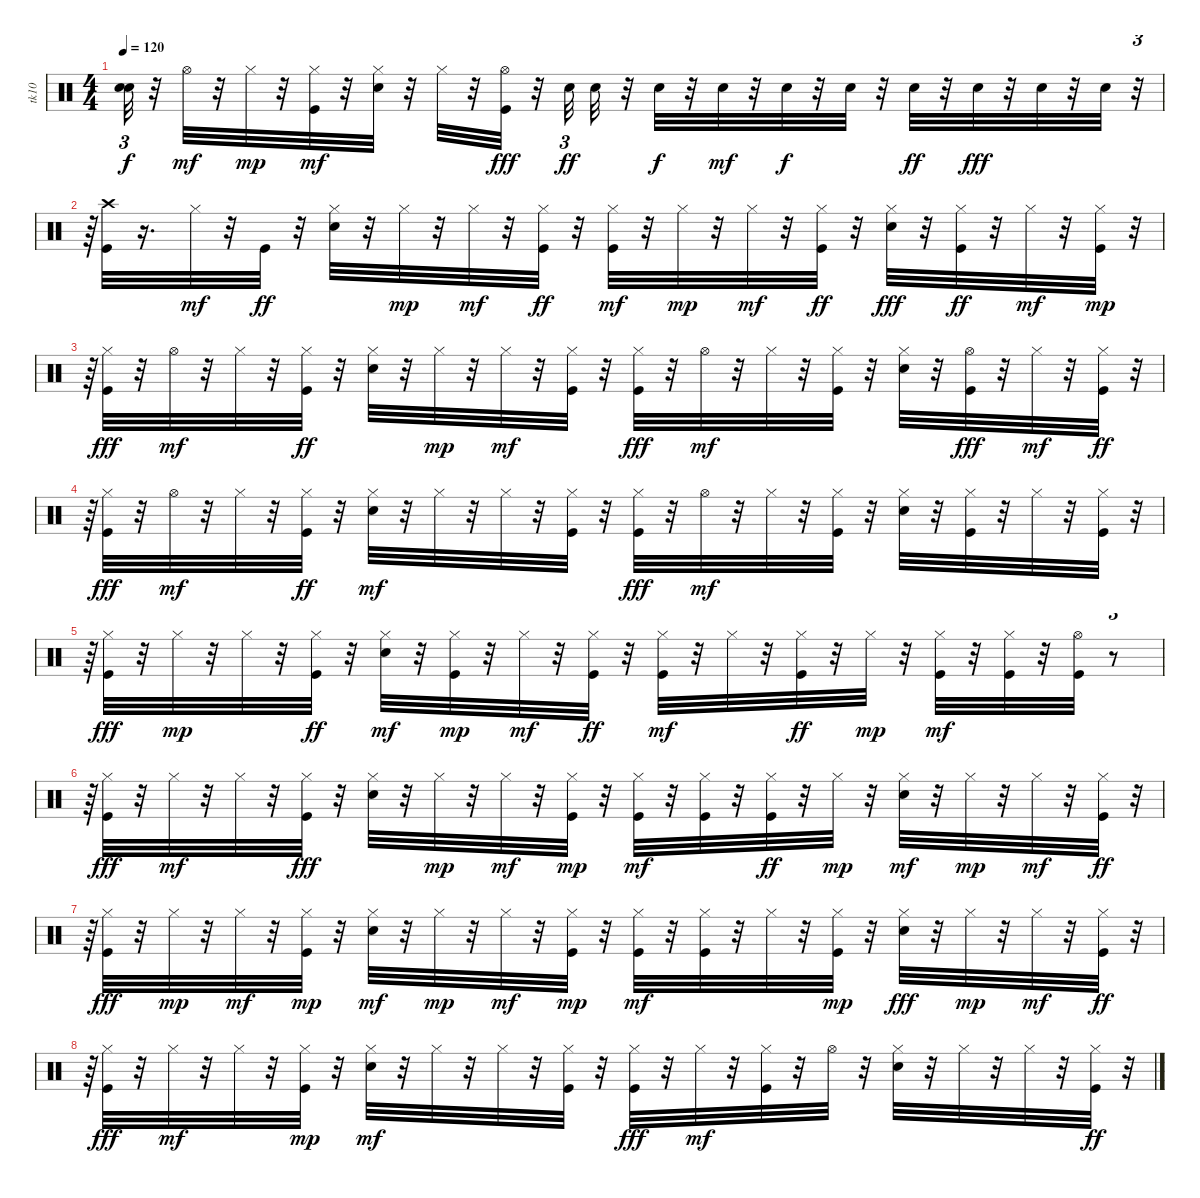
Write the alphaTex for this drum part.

\track ("tk10" "tk10") {instrument percussion}
\staff {score}
\articulation defaults
\ts (4 4)
\tempo 120
\clef neutral
\ks c
("Snare (hit)"{t} "Snare (hit)"{t}).32{tu (3 2) dy f} r.32 "Hi-Hat (open)".32{dy mf} r.32 "Hi-Hat (closed)".32{dy mp} r.32 ("Kick (hit)" "Hi-Hat (closed)").32{dy mf} r.32 ("Snare (hit) 2" "Hi-Hat (closed)").32 r.32 "Hi-Hat (closed)".32 r.32 ("Hi-Hat (open)" "Kick (hit)").32{dy fff} r.32 "Snare (hit) 2".32{tu (3 2) dy ff} "Snare (hit) 2".32 r.32 "Snare (hit) 2".32{dy f} r.32 "Snare (hit) 2".32{dy mf} r.32 "Snare (hit) 2".32{dy f} r.32 "Snare (hit) 2".32 r.32 "Snare (hit) 2".32{dy ff} r.32 "Snare (hit) 2".32{dy fff} r.32 "Snare (hit) 2".32 r.32 "Snare (hit) 2".32 r.32{tu (3 2)} |
r.64{tu (3 2)} ("Crash high (hit)" "Kick (hit)").32 r.16{d} "Hi-Hat (closed)".32{dy mf} r.32 "Kick (hit)".32{dy ff} r.32 ("Hi-Hat (closed)" "Snare (hit) 2").32 r.32 "Hi-Hat (closed)".32{dy mp} r.32 "Hi-Hat (closed)".32{dy mf} r.32 ("Hi-Hat (closed)" "Kick (hit)").32{dy ff} r.32 ("Kick (hit)" "Hi-Hat (closed)").32{dy mf} r.32 "Hi-Hat (closed)".32{dy mp} r.32 "Hi-Hat (closed)".32{dy mf} r.32 ("Hi-Hat (closed)" "Kick (hit)").32{dy ff} r.32 ("Hi-Hat (closed)" "Snare (hit) 2").32{dy fff} r.32 ("Hi-Hat (closed)" "Kick (hit)").32{dy ff} r.32 "Hi-Hat (closed)".32{dy mf} r.32 ("Hi-Hat (closed)" "Kick (hit)").32{dy mp} r.32{tu (3 2)} |
r.64{tu (3 2)} ("Hi-Hat (closed)" "Kick (hit)").32{dy fff} r.32 "Hi-Hat (open)".32{dy mf} r.32 "Hi-Hat (closed)".32 r.32 ("Hi-Hat (closed)" "Kick (hit)").32{dy ff} r.32 ("Hi-Hat (closed)" "Snare (hit) 2").32 r.32 "Hi-Hat (closed)".32{dy mp} r.32 "Hi-Hat (closed)".32{dy mf} r.32 ("Kick (hit)" "Hi-Hat (closed)").32 r.32 ("Hi-Hat (closed)" "Kick (hit)").32{dy fff} r.32 "Hi-Hat (open)".32{dy mf} r.32 "Hi-Hat (closed)".32 r.32 ("Kick (hit)" "Hi-Hat (closed)").32 r.32 ("Snare (hit) 2" "Hi-Hat (closed)").32 r.32 ("Hi-Hat (open)" "Kick (hit)").32{dy fff} r.32 "Hi-Hat (closed)".32{dy mf} r.32 ("Hi-Hat (closed)" "Kick (hit)").32{dy ff} r.32{tu (3 2)} |
r.64{tu (3 2)} ("Hi-Hat (closed)" "Kick (hit)").32{dy fff} r.32 "Hi-Hat (open)".32{dy mf} r.32 "Hi-Hat (closed)".32 r.32 ("Hi-Hat (closed)" "Kick (hit)").32{dy ff} r.32 ("Snare (hit) 2" "Hi-Hat (closed)").32{dy mf} r.32 "Hi-Hat (closed)".32 r.32 "Hi-Hat (closed)".32 r.32 ("Kick (hit)" "Hi-Hat (closed)").32 r.32 ("Hi-Hat (closed)" "Kick (hit)").32{dy fff} r.32 "Hi-Hat (open)".32{dy mf} r.32 "Hi-Hat (closed)".32 r.32 ("Kick (hit)" "Hi-Hat (closed)").32 r.32 ("Snare (hit) 2" "Hi-Hat (closed)").32 r.32 ("Kick (hit)" "Hi-Hat (closed)").32 r.32 "Hi-Hat (closed)".32 r.32 ("Hi-Hat (closed)" "Kick (hit)").32 r.32{tu (3 2)} |
r.64{tu (3 2)} ("Hi-Hat (closed)" "Kick (hit)").32{dy fff} r.32 "Hi-Hat (closed)".32{dy mp} r.32 "Hi-Hat (closed)".32 r.32 ("Hi-Hat (closed)" "Kick (hit)").32{dy ff} r.32 ("Snare (hit) 2" "Hi-Hat (closed)").32{dy mf} r.32 ("Kick (hit)" "Hi-Hat (closed)").32{dy mp} r.32 "Hi-Hat (closed)".32{dy mf} r.32 ("Hi-Hat (closed)" "Kick (hit)").32{dy ff} r.32 ("Kick (hit)" "Hi-Hat (closed)").32{dy mf} r.32 "Hi-Hat (closed)".32 r.32 ("Hi-Hat (closed)" "Kick (hit)").32{dy ff} r.32 "Hi-Hat (closed)".32{dy mp} r.32 ("Kick (hit)" "Hi-Hat (closed)").32{dy mf} r.32 ("Kick (hit)" "Hi-Hat (closed)").32 r.32 ("Kick (hit)" "Hi-Hat (open)").32 r.8{tu (3 2)} |
r.64{tu (3 2)} ("Hi-Hat (closed)" "Kick (hit)").32{dy fff} r.32 "Hi-Hat (closed)".32{dy mf} r.32 "Hi-Hat (closed)".32 r.32 ("Hi-Hat (closed)" "Kick (hit)").32{dy fff} r.32 ("Hi-Hat (closed)" "Snare (hit) 2").32 r.32 "Hi-Hat (closed)".32{dy mp} r.32 "Hi-Hat (closed)".32{dy mf} r.32 ("Hi-Hat (closed)" "Kick (hit)").32{dy mp} r.32 ("Kick (hit)" "Hi-Hat (closed)").32{dy mf} r.32 ("Hi-Hat (closed)" "Kick (hit)").32 r.32 ("Hi-Hat (closed)" "Kick (hit)").32{dy ff} r.32 "Hi-Hat (closed)".32{dy mp} r.32 ("Snare (hit) 2" "Hi-Hat (closed)").32{dy mf} r.32 "Hi-Hat (closed)".32{dy mp} r.32 "Hi-Hat (closed)".32{dy mf} r.32 ("Hi-Hat (closed)" "Kick (hit)").32{dy ff} r.32{tu (3 2)} |
r.64{tu (3 2)} ("Hi-Hat (closed)" "Kick (hit)").32{dy fff} r.32 "Hi-Hat (closed)".32{dy mp} r.32 "Hi-Hat (closed)".32{dy mf} r.32 ("Kick (hit)" "Hi-Hat (closed)").32{dy mp} r.32 ("Snare (hit) 2" "Hi-Hat (closed)").32{dy mf} r.32 "Hi-Hat (closed)".32{dy mp} r.32 "Hi-Hat (closed)".32{dy mf} r.32 ("Kick (hit)" "Hi-Hat (closed)").32{dy mp} r.32 ("Kick (hit)" "Hi-Hat (closed)").32{dy mf} r.32 ("Kick (hit)" "Hi-Hat (closed)").32 r.32 "Hi-Hat (closed)".32 r.32 ("Kick (hit)" "Hi-Hat (closed)").32{dy mp} r.32 ("Hi-Hat (closed)" "Snare (hit) 2").32{dy fff} r.32 "Hi-Hat (closed)".32{dy mp} r.32 "Hi-Hat (closed)".32{dy mf} r.32 ("Hi-Hat (closed)" "Kick (hit)").32{dy ff} r.32{tu (3 2)} |
r.64{tu (3 2)} ("Hi-Hat (closed)" "Kick (hit)").32{dy fff} r.32 "Hi-Hat (closed)".32{dy mf} r.32 "Hi-Hat (closed)".32 r.32 ("Kick (hit)" "Hi-Hat (closed)").32{dy mp} r.32 ("Snare (hit) 2" "Hi-Hat (closed)").32{dy mf} r.32 "Hi-Hat (closed)".32 r.32 "Hi-Hat (closed)".32 r.32 ("Kick (hit)" "Hi-Hat (closed)").32 r.32 ("Hi-Hat (closed)" "Kick (hit)").32{dy fff} r.32 "Hi-Hat (closed)".32{dy mf} r.32 ("Kick (hit)" "Hi-Hat (closed)").32 r.32 "Hi-Hat (open)".32 r.32 ("Snare (hit) 2" "Hi-Hat (closed)").32 r.32 "Hi-Hat (closed)".32 r.32 "Hi-Hat (closed)".32 r.32 ("Hi-Hat (closed)" "Kick (hit)").32{dy ff} r.32{tu (3 2)}
